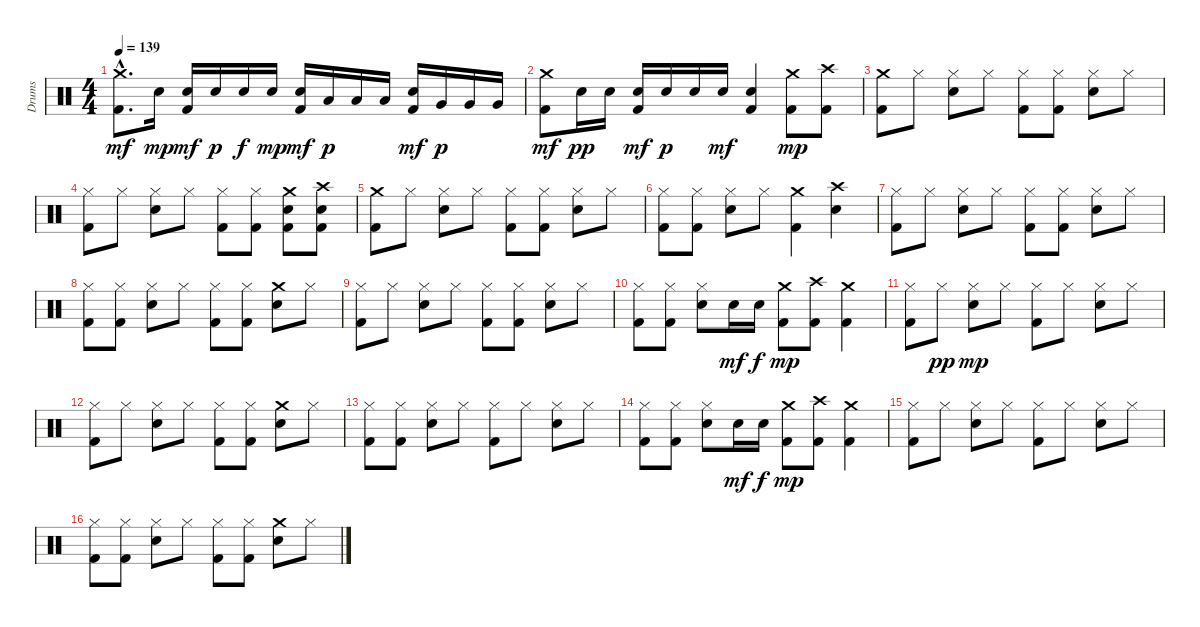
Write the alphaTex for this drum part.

\track ("Drums" "Drums") {instrument percussion}
\staff {score}
\articulation defaults
\ts (4 4)
\tempo 139
\clef neutral
\ks c
("Kick (hit) 2"{hac} "Crash medium (hit)"{hac}).8{d dy mf} "Electric Snare (hit)".16{dy mp} ("Electric Snare (hit)" "Kick (hit) 2").16{dy mf} "Electric Snare (hit)".16{dy p} "Electric Snare (hit)".16{dy f} "Electric Snare (hit)".16{dy mp} ("Electric Snare (hit)" "Kick (hit) 2").16{dy mf} "Low Tom (hit)".16{dy p} "Low Tom (hit)".16 "Low Tom (hit)".16 ("Electric Snare (hit)" "Kick (hit) 2").16{dy mf} "Very Low Tom (hit)".16{dy p} "Very Low Tom (hit)".16 "Very Low Tom (hit)".16 |
("Kick (hit) 2" "Crash medium (hit)").8{dy mf} "Electric Snare (hit)".16{dy pp} "Electric Snare (hit)".16 ("Electric Snare (hit)" "Kick (hit) 2").16{dy mf} "Electric Snare (hit)".16{dy p} "Electric Snare (hit)".16 "Electric Snare (hit)".16{dy mf} ("Electric Snare (hit)" "Kick (hit) 2").4 ("Kick (hit) 2" "Crash medium (hit)").8{dy mp} ("Kick (hit) 2" "Crash high (hit)").8 |
("Kick (hit) 2" "Crash medium (hit)").8 "Hi-Hat (closed)".8 ("Hi-Hat (closed)" "Electric Snare (hit)").8 "Hi-Hat (closed)".8 ("Kick (hit) 2" "Hi-Hat (closed)").8 ("Kick (hit) 2" "Hi-Hat (closed)").8 ("Hi-Hat (closed)" "Electric Snare (hit)").8 "Hi-Hat (closed)".8 |
("Kick (hit) 2" "Hi-Hat (closed)").8 "Hi-Hat (closed)".8 ("Hi-Hat (closed)" "Electric Snare (hit)").8 "Hi-Hat (closed)".8 ("Kick (hit) 2" "Hi-Hat (closed)").8 ("Kick (hit) 2" "Hi-Hat (closed)").8 ("Kick (hit) 2" "Crash medium (hit)" "Electric Snare (hit)").8 ("Kick (hit) 2" "Crash high (hit)" "Electric Snare (hit)").8 |
("Kick (hit) 2" "Crash medium (hit)").8 "Hi-Hat (closed)".8 ("Hi-Hat (closed)" "Electric Snare (hit)").8 "Hi-Hat (closed)".8 ("Kick (hit) 2" "Hi-Hat (closed)").8 ("Kick (hit) 2" "Hi-Hat (closed)").8 ("Hi-Hat (closed)" "Electric Snare (hit)").8 "Hi-Hat (closed)".8 |
("Kick (hit) 2" "Hi-Hat (closed)").8 ("Kick (hit) 2" "Hi-Hat (closed)").8 ("Hi-Hat (closed)" "Electric Snare (hit)").8 "Hi-Hat (closed)".8 ("Kick (hit) 2" "Crash medium (hit)").4 ("Crash high (hit)" "Electric Snare (hit)").4 |
("Kick (hit) 2" "Hi-Hat (closed)").8 "Hi-Hat (closed)".8 ("Hi-Hat (closed)" "Electric Snare (hit)").8 "Hi-Hat (closed)".8 ("Kick (hit) 2" "Hi-Hat (closed)").8 ("Kick (hit) 2" "Hi-Hat (closed)").8 ("Hi-Hat (closed)" "Electric Snare (hit)").8 "Hi-Hat (closed)".8 |
("Kick (hit) 2" "Hi-Hat (closed)").8 ("Kick (hit) 2" "Hi-Hat (closed)").8 ("Hi-Hat (closed)" "Electric Snare (hit)").8 "Hi-Hat (closed)".8 ("Kick (hit) 2" "Hi-Hat (closed)").8 ("Kick (hit) 2" "Hi-Hat (closed)").8 ("Crash medium (hit)" "Electric Snare (hit)").8 "Hi-Hat (closed)".8 |
("Kick (hit) 2" "Hi-Hat (closed)").8 "Hi-Hat (closed)".8 ("Hi-Hat (closed)" "Electric Snare (hit)").8 "Hi-Hat (closed)".8 ("Kick (hit) 2" "Hi-Hat (closed)").8 ("Kick (hit) 2" "Hi-Hat (closed)").8 ("Hi-Hat (closed)" "Electric Snare (hit)").8 "Hi-Hat (closed)".8 |
("Kick (hit) 2" "Hi-Hat (closed)").8 ("Kick (hit) 2" "Hi-Hat (closed)").8 ("Hi-Hat (closed)" "Electric Snare (hit)").8 "Electric Snare (hit)".16{dy mf} "Electric Snare (hit)".16{dy f} ("Kick (hit) 2" "Crash medium (hit)").8{dy mp} ("Kick (hit) 2" "Crash high (hit)").8 ("Kick (hit) 2" "Crash medium (hit)").4 |
("Kick (hit) 2" "Hi-Hat (closed)").8 "Hi-Hat (closed)".8{dy pp} ("Hi-Hat (closed)" "Electric Snare (hit)").8{dy mp} "Hi-Hat (closed)".8 ("Kick (hit) 2" "Hi-Hat (closed)").8 "Hi-Hat (closed)".8 ("Hi-Hat (closed)" "Electric Snare (hit)").8 "Hi-Hat (closed)".8 |
("Kick (hit) 2" "Hi-Hat (closed)").8 "Hi-Hat (closed)".8 ("Hi-Hat (closed)" "Electric Snare (hit)").8 "Hi-Hat (closed)".8 ("Kick (hit) 2" "Hi-Hat (closed)").8 ("Kick (hit) 2" "Hi-Hat (closed)").8 ("Crash medium (hit)" "Electric Snare (hit)").8 "Hi-Hat (closed)".8 |
("Kick (hit) 2" "Hi-Hat (closed)").8 ("Kick (hit) 2" "Hi-Hat (closed)").8 ("Hi-Hat (closed)" "Electric Snare (hit)").8 "Hi-Hat (closed)".8 ("Kick (hit) 2" "Hi-Hat (closed)").8 "Hi-Hat (closed)".8 ("Hi-Hat (closed)" "Electric Snare (hit)").8 "Hi-Hat (closed)".8 |
("Kick (hit) 2" "Hi-Hat (closed)").8 ("Kick (hit) 2" "Hi-Hat (closed)").8 ("Hi-Hat (closed)" "Electric Snare (hit)").8 "Electric Snare (hit)".16{dy mf} "Electric Snare (hit)".16{dy f} ("Kick (hit) 2" "Crash medium (hit)").8{dy mp} ("Kick (hit) 2" "Crash high (hit)").8 ("Kick (hit) 2" "Crash medium (hit)").4 |
("Kick (hit) 2" "Hi-Hat (closed)").8 "Hi-Hat (closed)".8 ("Hi-Hat (closed)" "Electric Snare (hit)").8 "Hi-Hat (closed)".8 ("Kick (hit) 2" "Hi-Hat (closed)").8 "Hi-Hat (closed)".8 ("Hi-Hat (closed)" "Electric Snare (hit)").8 "Hi-Hat (closed)".8 |
("Kick (hit) 2" "Hi-Hat (closed)").8 ("Kick (hit) 2" "Hi-Hat (closed)").8 ("Hi-Hat (closed)" "Electric Snare (hit)").8 "Hi-Hat (closed)".8 ("Kick (hit) 2" "Hi-Hat (closed)").8 ("Kick (hit) 2" "Hi-Hat (closed)").8 ("Crash medium (hit)" "Electric Snare (hit)").8 "Hi-Hat (closed)".8
